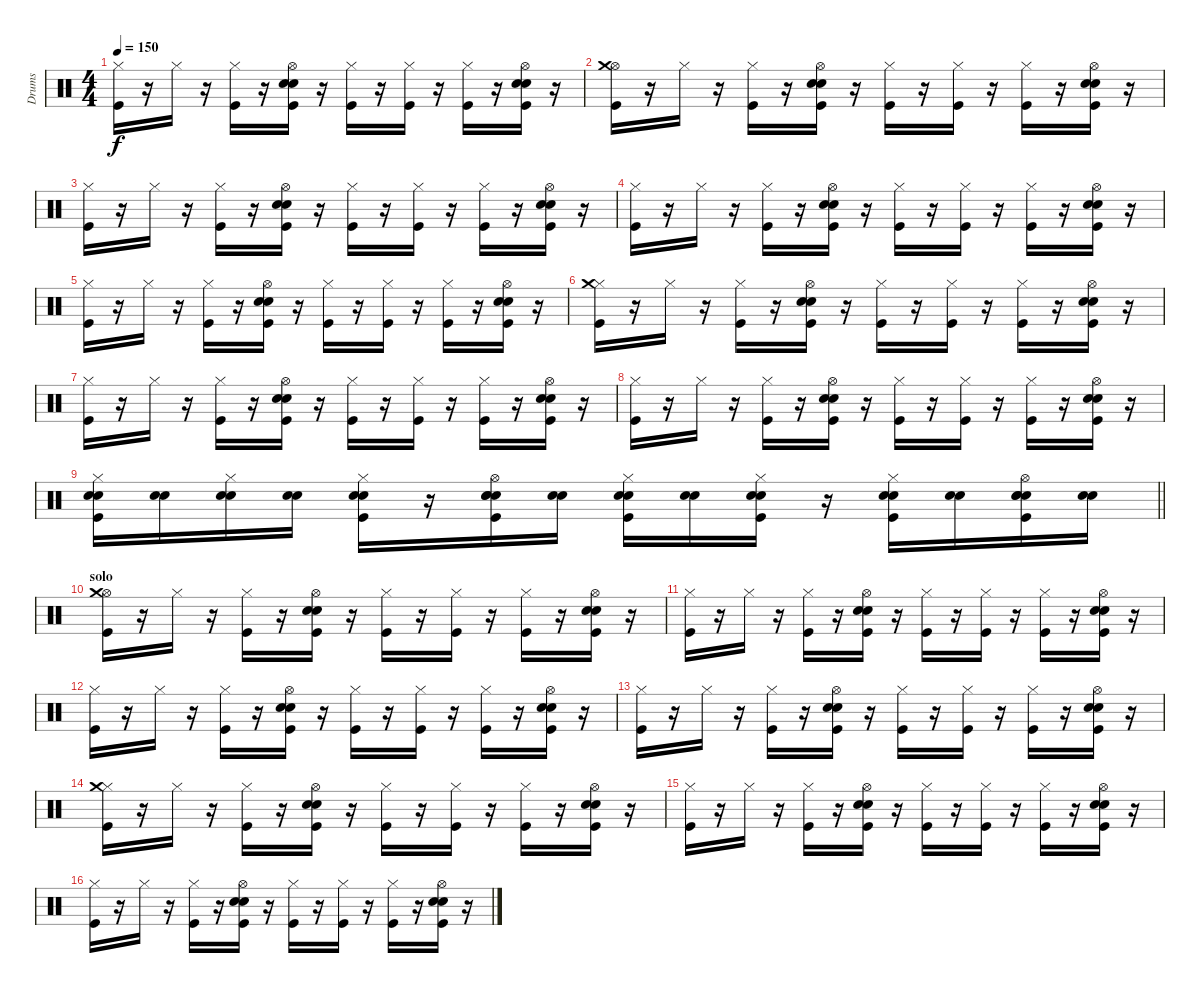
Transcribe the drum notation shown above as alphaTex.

\track ("Drums" "Drums") {instrument percussion}
\staff {score}
\articulation defaults
\ts (4 4)
\tempo 150
\clef neutral
\ks c
("Hi-Hat (closed)" "Kick (hit)").16{dy f} r.16 "Hi-Hat (closed)".16 r.16 ("Hi-Hat (closed)" "Kick (hit)").16 r.16 ("Hi-Hat (open)" "Electric Snare (hit)" "Snare (hit) 2" "Kick (hit)").16 r.16 ("Hi-Hat (closed)" "Kick (hit)").16 r.16 ("Hi-Hat (closed)" "Kick (hit)").16 r.16 ("Hi-Hat (closed)" "Kick (hit)").16 r.16 ("Hi-Hat (open)" "Electric Snare (hit)" "Snare (hit) 2" "Kick (hit)").16 r.16 |
("Hi-Hat (open)" "Kick (hit)" "Crash medium (hit)").16 r.16 "Hi-Hat (closed)".16 r.16 ("Hi-Hat (closed)" "Kick (hit)").16 r.16 ("Hi-Hat (open)" "Electric Snare (hit)" "Snare (hit) 2" "Kick (hit)").16 r.16 ("Hi-Hat (closed)" "Kick (hit)").16 r.16 ("Hi-Hat (closed)" "Kick (hit)").16 r.16 ("Hi-Hat (closed)" "Kick (hit)").16 r.16 ("Hi-Hat (open)" "Electric Snare (hit)" "Snare (hit) 2" "Kick (hit)").16 r.16 |
("Hi-Hat (closed)" "Kick (hit)").16 r.16 "Hi-Hat (closed)".16 r.16 ("Hi-Hat (closed)" "Kick (hit)").16 r.16 ("Hi-Hat (open)" "Electric Snare (hit)" "Snare (hit) 2" "Kick (hit)").16 r.16 ("Hi-Hat (closed)" "Kick (hit)").16 r.16 ("Hi-Hat (closed)" "Kick (hit)").16 r.16 ("Hi-Hat (closed)" "Kick (hit)").16 r.16 ("Hi-Hat (open)" "Electric Snare (hit)" "Snare (hit) 2" "Kick (hit)").16 r.16 |
("Hi-Hat (closed)" "Kick (hit)").16 r.16 "Hi-Hat (closed)".16 r.16 ("Hi-Hat (closed)" "Kick (hit)").16 r.16 ("Hi-Hat (open)" "Electric Snare (hit)" "Snare (hit) 2" "Kick (hit)").16 r.16 ("Hi-Hat (closed)" "Kick (hit)").16 r.16 ("Hi-Hat (closed)" "Kick (hit)").16 r.16 ("Hi-Hat (closed)" "Kick (hit)").16 r.16 ("Hi-Hat (open)" "Electric Snare (hit)" "Snare (hit) 2" "Kick (hit)").16 r.16 |
("Hi-Hat (closed)" "Kick (hit)").16 r.16 "Hi-Hat (closed)".16 r.16 ("Hi-Hat (closed)" "Kick (hit)").16 r.16 ("Hi-Hat (open)" "Electric Snare (hit)" "Snare (hit) 2" "Kick (hit)").16 r.16 ("Hi-Hat (closed)" "Kick (hit)").16 r.16 ("Hi-Hat (closed)" "Kick (hit)").16 r.16 ("Hi-Hat (closed)" "Kick (hit)").16 r.16 ("Hi-Hat (open)" "Electric Snare (hit)" "Snare (hit) 2" "Kick (hit)").16 r.16 |
("Hi-Hat (closed)" "Kick (hit)" "Crash medium (hit)").16 r.16 "Hi-Hat (closed)".16 r.16 ("Hi-Hat (closed)" "Kick (hit)").16 r.16 ("Hi-Hat (open)" "Electric Snare (hit)" "Snare (hit) 2" "Kick (hit)").16 r.16 ("Hi-Hat (closed)" "Kick (hit)").16 r.16 ("Hi-Hat (closed)" "Kick (hit)").16 r.16 ("Hi-Hat (closed)" "Kick (hit)").16 r.16 ("Hi-Hat (open)" "Electric Snare (hit)" "Snare (hit) 2" "Kick (hit)").16 r.16 |
("Hi-Hat (closed)" "Kick (hit)").16 r.16 "Hi-Hat (closed)".16 r.16 ("Hi-Hat (closed)" "Kick (hit)").16 r.16 ("Hi-Hat (open)" "Electric Snare (hit)" "Snare (hit) 2" "Kick (hit)").16 r.16 ("Hi-Hat (closed)" "Kick (hit)").16 r.16 ("Hi-Hat (closed)" "Kick (hit)").16 r.16 ("Hi-Hat (closed)" "Kick (hit)").16 r.16 ("Hi-Hat (open)" "Electric Snare (hit)" "Snare (hit) 2" "Kick (hit)").16 r.16 |
("Hi-Hat (closed)" "Kick (hit)").16 r.16 "Hi-Hat (closed)".16 r.16 ("Hi-Hat (closed)" "Kick (hit)").16 r.16 ("Hi-Hat (open)" "Electric Snare (hit)" "Snare (hit) 2" "Kick (hit)").16 r.16 ("Hi-Hat (closed)" "Kick (hit)").16 r.16 ("Hi-Hat (closed)" "Kick (hit)").16 r.16 ("Hi-Hat (closed)" "Kick (hit)").16 r.16 ("Hi-Hat (open)" "Electric Snare (hit)" "Snare (hit) 2" "Kick (hit)").16 r.16 |
\barLineRight lightlight
("Snare (hit) 2" "Hi-Hat (closed)" "Electric Snare (hit)" "Kick (hit)").16 ("Snare (hit) 2" "Electric Snare (hit)").16 ("Snare (hit) 2" "Hi-Hat (closed)" "Electric Snare (hit)").16 ("Snare (hit) 2" "Electric Snare (hit)").16 ("Snare (hit) 2" "Hi-Hat (closed)" "Electric Snare (hit)" "Kick (hit)").16 r.16 ("Snare (hit) 2" "Hi-Hat (open)" "Electric Snare (hit)" "Snare (hit) 2" "Kick (hit)").16 ("Snare (hit) 2" "Electric Snare (hit)").16 ("Snare (hit) 2" "Hi-Hat (closed)" "Electric Snare (hit)" "Kick (hit)").16 ("Snare (hit) 2" "Electric Snare (hit)").16 ("Snare (hit) 2" "Hi-Hat (closed)" "Electric Snare (hit)" "Kick (hit)").16 r.16 ("Snare (hit) 2" "Hi-Hat (closed)" "Electric Snare (hit)" "Kick (hit)").16 ("Snare (hit) 2" "Electric Snare (hit)").16 ("Snare (hit) 2" "Hi-Hat (open)" "Electric Snare (hit)" "Snare (hit) 2" "Kick (hit)").16 ("Snare (hit) 2" "Electric Snare (hit)").16 |
\section ("" "solo")
("Hi-Hat (open)" "Kick (hit)" "Crash medium (hit)").16 r.16 "Hi-Hat (closed)".16 r.16 ("Hi-Hat (closed)" "Kick (hit)").16 r.16 ("Hi-Hat (open)" "Electric Snare (hit)" "Snare (hit) 2" "Kick (hit)").16 r.16 ("Hi-Hat (closed)" "Kick (hit)").16 r.16 ("Hi-Hat (closed)" "Kick (hit)").16 r.16 ("Hi-Hat (closed)" "Kick (hit)").16 r.16 ("Hi-Hat (open)" "Electric Snare (hit)" "Snare (hit) 2" "Kick (hit)").16 r.16 |
("Hi-Hat (closed)" "Kick (hit)").16 r.16 "Hi-Hat (closed)".16 r.16 ("Hi-Hat (closed)" "Kick (hit)").16 r.16 ("Hi-Hat (open)" "Electric Snare (hit)" "Snare (hit) 2" "Kick (hit)").16 r.16 ("Hi-Hat (closed)" "Kick (hit)").16 r.16 ("Hi-Hat (closed)" "Kick (hit)").16 r.16 ("Hi-Hat (closed)" "Kick (hit)").16 r.16 ("Hi-Hat (open)" "Electric Snare (hit)" "Snare (hit) 2" "Kick (hit)").16 r.16 |
("Hi-Hat (closed)" "Kick (hit)").16 r.16 "Hi-Hat (closed)".16 r.16 ("Hi-Hat (closed)" "Kick (hit)").16 r.16 ("Hi-Hat (open)" "Electric Snare (hit)" "Snare (hit) 2" "Kick (hit)").16 r.16 ("Hi-Hat (closed)" "Kick (hit)").16 r.16 ("Hi-Hat (closed)" "Kick (hit)").16 r.16 ("Hi-Hat (closed)" "Kick (hit)").16 r.16 ("Hi-Hat (open)" "Electric Snare (hit)" "Snare (hit) 2" "Kick (hit)").16 r.16 |
("Hi-Hat (closed)" "Kick (hit)").16 r.16 "Hi-Hat (closed)".16 r.16 ("Hi-Hat (closed)" "Kick (hit)").16 r.16 ("Hi-Hat (open)" "Electric Snare (hit)" "Snare (hit) 2" "Kick (hit)").16 r.16 ("Hi-Hat (closed)" "Kick (hit)").16 r.16 ("Hi-Hat (closed)" "Kick (hit)").16 r.16 ("Hi-Hat (closed)" "Kick (hit)").16 r.16 ("Hi-Hat (open)" "Electric Snare (hit)" "Snare (hit) 2" "Kick (hit)").16 r.16 |
("Hi-Hat (closed)" "Kick (hit)" "Crash medium (hit)").16 r.16 "Hi-Hat (closed)".16 r.16 ("Hi-Hat (closed)" "Kick (hit)").16 r.16 ("Hi-Hat (open)" "Electric Snare (hit)" "Snare (hit) 2" "Kick (hit)").16 r.16 ("Hi-Hat (closed)" "Kick (hit)").16 r.16 ("Hi-Hat (closed)" "Kick (hit)").16 r.16 ("Hi-Hat (closed)" "Kick (hit)").16 r.16 ("Hi-Hat (open)" "Electric Snare (hit)" "Snare (hit) 2" "Kick (hit)").16 r.16 |
("Hi-Hat (closed)" "Kick (hit)").16 r.16 "Hi-Hat (closed)".16 r.16 ("Hi-Hat (closed)" "Kick (hit)").16 r.16 ("Hi-Hat (open)" "Electric Snare (hit)" "Snare (hit) 2" "Kick (hit)").16 r.16 ("Hi-Hat (closed)" "Kick (hit)").16 r.16 ("Hi-Hat (closed)" "Kick (hit)").16 r.16 ("Hi-Hat (closed)" "Kick (hit)").16 r.16 ("Hi-Hat (open)" "Electric Snare (hit)" "Snare (hit) 2" "Kick (hit)").16 r.16 |
("Hi-Hat (closed)" "Kick (hit)").16 r.16 "Hi-Hat (closed)".16 r.16 ("Hi-Hat (closed)" "Kick (hit)").16 r.16 ("Hi-Hat (open)" "Electric Snare (hit)" "Snare (hit) 2" "Kick (hit)").16 r.16 ("Hi-Hat (closed)" "Kick (hit)").16 r.16 ("Hi-Hat (closed)" "Kick (hit)").16 r.16 ("Hi-Hat (closed)" "Kick (hit)").16 r.16 ("Hi-Hat (open)" "Electric Snare (hit)" "Snare (hit) 2" "Kick (hit)").16 r.16
